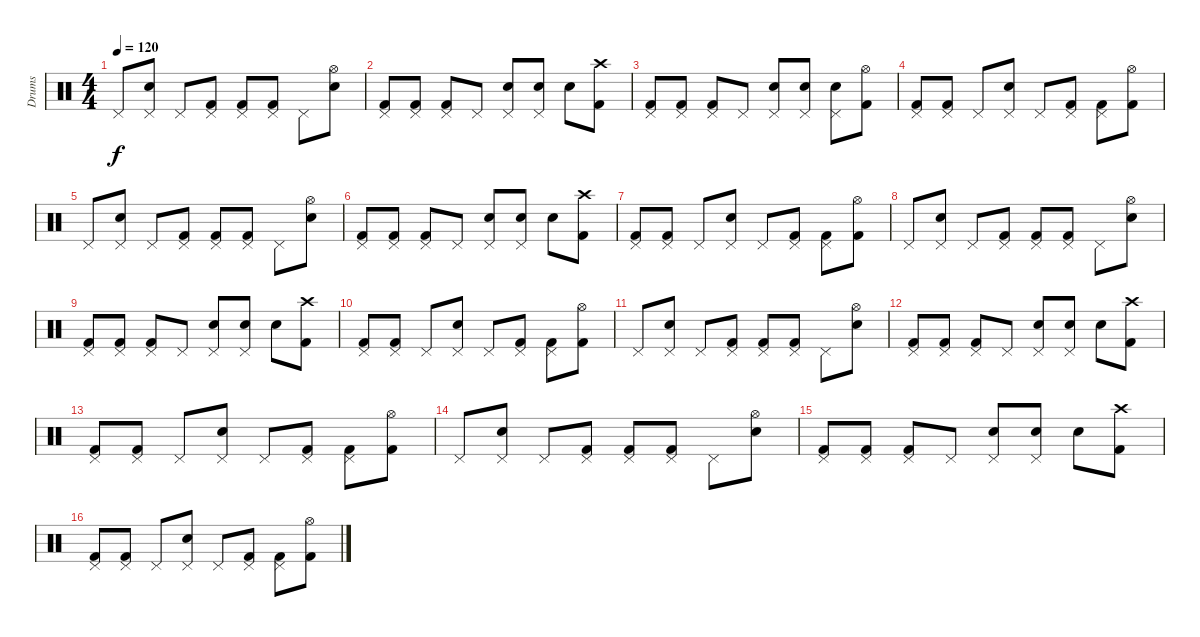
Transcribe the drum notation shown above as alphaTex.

\track ("Drums" "Drums") {instrument percussion}
\staff {score}
\articulation defaults
\ts (4 4)
\tempo 120
\clef neutral
\ks c "Pedal Hi-Hat (hit)".8{dy f}
("Pedal Hi-Hat (hit)" "Snare (hit) 2").8 "Pedal Hi-Hat (hit)".8 ("Pedal Hi-Hat (hit)" "Kick (hit) 2").8 ("Pedal Hi-Hat (hit)" "Kick (hit) 2").8 ("Pedal Hi-Hat (hit)" "Kick (hit) 2").8 "Pedal Hi-Hat (hit)".8 ("Hi-Hat (open)" "Snare (hit) 2").8 |
("Pedal Hi-Hat (hit)" "Kick (hit) 2").8 ("Pedal Hi-Hat (hit)" "Kick (hit) 2").8 ("Pedal Hi-Hat (hit)" "Kick (hit) 2").8 "Pedal Hi-Hat (hit)".8 ("Pedal Hi-Hat (hit)" "Snare (hit) 2").8 ("Pedal Hi-Hat (hit)" "Snare (hit) 2").8 "Snare (hit) 2".8 ("Crash high (hit)" "Kick (hit) 2").8 |
("Pedal Hi-Hat (hit)" "Kick (hit) 2").8 ("Pedal Hi-Hat (hit)" "Kick (hit) 2").8 ("Pedal Hi-Hat (hit)" "Kick (hit) 2").8 "Pedal Hi-Hat (hit)".8 ("Pedal Hi-Hat (hit)" "Snare (hit) 2").8 ("Pedal Hi-Hat (hit)" "Snare (hit) 2").8 ("Pedal Hi-Hat (hit)" "Snare (hit) 2").8 ("Hi-Hat (open)" "Kick (hit) 2").8 |
("Pedal Hi-Hat (hit)" "Kick (hit) 2").8 ("Pedal Hi-Hat (hit)" "Kick (hit) 2").8 "Pedal Hi-Hat (hit)".8 ("Pedal Hi-Hat (hit)" "Snare (hit) 2").8 "Pedal Hi-Hat (hit)".8 ("Pedal Hi-Hat (hit)" "Kick (hit) 2").8 ("Pedal Hi-Hat (hit)" "Kick (hit) 2").8 ("Hi-Hat (open)" "Kick (hit) 2").8 |
"Pedal Hi-Hat (hit)".8 ("Pedal Hi-Hat (hit)" "Snare (hit) 2").8 "Pedal Hi-Hat (hit)".8 ("Pedal Hi-Hat (hit)" "Kick (hit) 2").8 ("Pedal Hi-Hat (hit)" "Kick (hit) 2").8 ("Pedal Hi-Hat (hit)" "Kick (hit) 2").8 "Pedal Hi-Hat (hit)".8 ("Hi-Hat (open)" "Snare (hit) 2").8 |
("Pedal Hi-Hat (hit)" "Kick (hit) 2").8 ("Pedal Hi-Hat (hit)" "Kick (hit) 2").8 ("Pedal Hi-Hat (hit)" "Kick (hit) 2").8 "Pedal Hi-Hat (hit)".8 ("Pedal Hi-Hat (hit)" "Snare (hit) 2").8 ("Pedal Hi-Hat (hit)" "Snare (hit) 2").8 "Snare (hit) 2".8 ("Crash high (hit)" "Kick (hit) 2").8 |
("Pedal Hi-Hat (hit)" "Kick (hit) 2").8 ("Pedal Hi-Hat (hit)" "Kick (hit) 2").8 "Pedal Hi-Hat (hit)".8 ("Pedal Hi-Hat (hit)" "Snare (hit) 2").8 "Pedal Hi-Hat (hit)".8 ("Pedal Hi-Hat (hit)" "Kick (hit) 2").8 ("Pedal Hi-Hat (hit)" "Kick (hit) 2").8 ("Hi-Hat (open)" "Kick (hit) 2").8 |
"Pedal Hi-Hat (hit)".8 ("Pedal Hi-Hat (hit)" "Snare (hit) 2").8 "Pedal Hi-Hat (hit)".8 ("Pedal Hi-Hat (hit)" "Kick (hit) 2").8 ("Pedal Hi-Hat (hit)" "Kick (hit) 2").8 ("Pedal Hi-Hat (hit)" "Kick (hit) 2").8 "Pedal Hi-Hat (hit)".8 ("Hi-Hat (open)" "Snare (hit) 2").8 |
("Pedal Hi-Hat (hit)" "Kick (hit) 2").8 ("Pedal Hi-Hat (hit)" "Kick (hit) 2").8 ("Pedal Hi-Hat (hit)" "Kick (hit) 2").8 "Pedal Hi-Hat (hit)".8 ("Pedal Hi-Hat (hit)" "Snare (hit) 2").8 ("Pedal Hi-Hat (hit)" "Snare (hit) 2").8 "Snare (hit) 2".8 ("Crash high (hit)" "Kick (hit) 2").8 |
("Pedal Hi-Hat (hit)" "Kick (hit) 2").8 ("Pedal Hi-Hat (hit)" "Kick (hit) 2").8 "Pedal Hi-Hat (hit)".8 ("Pedal Hi-Hat (hit)" "Snare (hit) 2").8 "Pedal Hi-Hat (hit)".8 ("Pedal Hi-Hat (hit)" "Kick (hit) 2").8 ("Pedal Hi-Hat (hit)" "Kick (hit) 2").8 ("Hi-Hat (open)" "Kick (hit) 2").8 |
"Pedal Hi-Hat (hit)".8 ("Pedal Hi-Hat (hit)" "Snare (hit) 2").8 "Pedal Hi-Hat (hit)".8 ("Pedal Hi-Hat (hit)" "Kick (hit) 2").8 ("Pedal Hi-Hat (hit)" "Kick (hit) 2").8 ("Pedal Hi-Hat (hit)" "Kick (hit) 2").8 "Pedal Hi-Hat (hit)".8 ("Hi-Hat (open)" "Snare (hit) 2").8 |
("Pedal Hi-Hat (hit)" "Kick (hit) 2").8 ("Pedal Hi-Hat (hit)" "Kick (hit) 2").8 ("Pedal Hi-Hat (hit)" "Kick (hit) 2").8 "Pedal Hi-Hat (hit)".8 ("Pedal Hi-Hat (hit)" "Snare (hit) 2").8 ("Pedal Hi-Hat (hit)" "Snare (hit) 2").8 "Snare (hit) 2".8 ("Crash high (hit)" "Kick (hit) 2").8 |
("Pedal Hi-Hat (hit)" "Kick (hit) 2").8 ("Pedal Hi-Hat (hit)" "Kick (hit) 2").8 "Pedal Hi-Hat (hit)".8 ("Pedal Hi-Hat (hit)" "Snare (hit) 2").8 "Pedal Hi-Hat (hit)".8 ("Pedal Hi-Hat (hit)" "Kick (hit) 2").8 ("Pedal Hi-Hat (hit)" "Kick (hit) 2").8 ("Hi-Hat (open)" "Kick (hit) 2").8 |
"Pedal Hi-Hat (hit)".8 ("Pedal Hi-Hat (hit)" "Snare (hit) 2").8 "Pedal Hi-Hat (hit)".8 ("Pedal Hi-Hat (hit)" "Kick (hit) 2").8 ("Pedal Hi-Hat (hit)" "Kick (hit) 2").8 ("Pedal Hi-Hat (hit)" "Kick (hit) 2").8 "Pedal Hi-Hat (hit)".8 ("Hi-Hat (open)" "Snare (hit) 2").8 |
("Pedal Hi-Hat (hit)" "Kick (hit) 2").8 ("Pedal Hi-Hat (hit)" "Kick (hit) 2").8 ("Pedal Hi-Hat (hit)" "Kick (hit) 2").8 "Pedal Hi-Hat (hit)".8 ("Pedal Hi-Hat (hit)" "Snare (hit) 2").8 ("Pedal Hi-Hat (hit)" "Snare (hit) 2").8 "Snare (hit) 2".8 ("Crash high (hit)" "Kick (hit) 2").8 |
("Pedal Hi-Hat (hit)" "Kick (hit) 2").8 ("Pedal Hi-Hat (hit)" "Kick (hit) 2").8 "Pedal Hi-Hat (hit)".8 ("Pedal Hi-Hat (hit)" "Snare (hit) 2").8 "Pedal Hi-Hat (hit)".8 ("Pedal Hi-Hat (hit)" "Kick (hit) 2").8 ("Pedal Hi-Hat (hit)" "Kick (hit) 2").8 ("Hi-Hat (open)" "Kick (hit) 2").8
